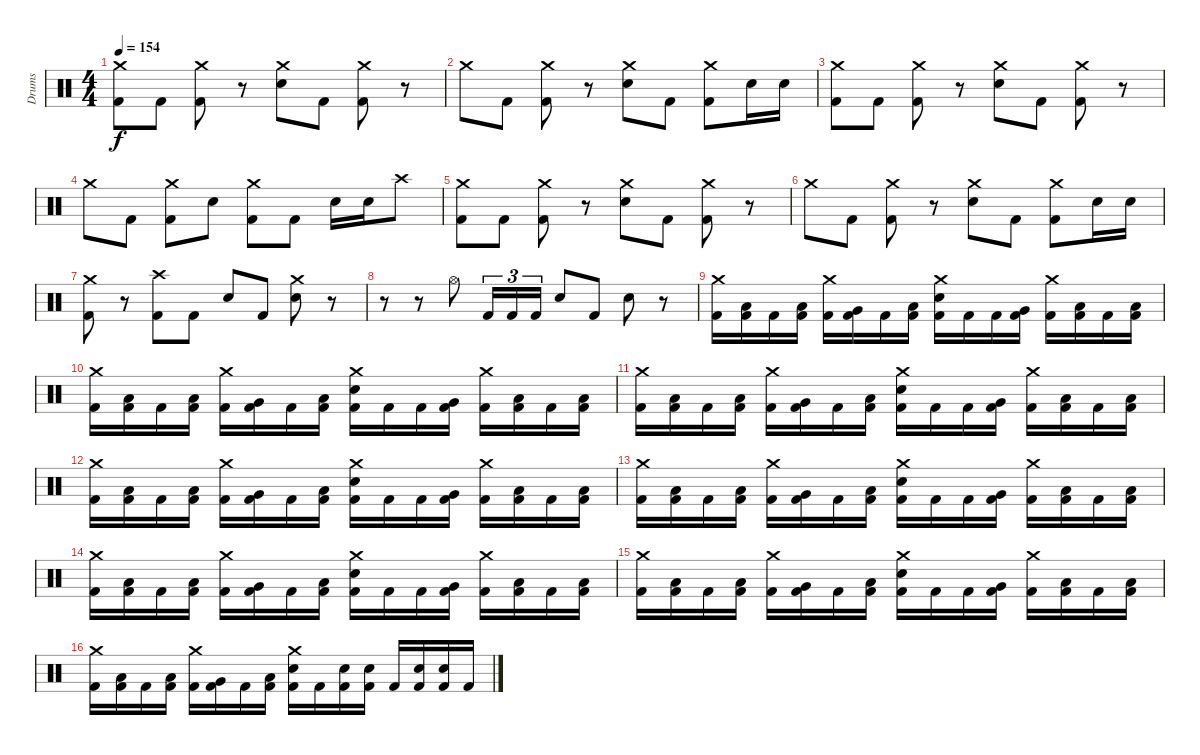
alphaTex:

\track ("Drums" "Drums") {instrument percussion}
\staff {score}
\articulation defaults
\ts (4 4)
\tempo 154
\clef neutral
\ks c
("Crash medium (hit)" "Kick (hit) 2").8{dy f} "Kick (hit) 2".8 ("Crash medium (hit)" "Kick (hit) 2").8 r.8 ("Crash medium (hit)" "Electric Snare (hit)").8 "Kick (hit) 2".8 ("Crash medium (hit)" "Kick (hit) 2").8 r.8 |
"Crash medium (hit)".8 "Kick (hit) 2".8 ("Crash medium (hit)" "Kick (hit) 2").8 r.8 ("Crash medium (hit)" "Electric Snare (hit)").8 "Kick (hit) 2".8 ("Crash medium (hit)" "Kick (hit) 2").8 "Electric Snare (hit)".16 "Electric Snare (hit)".16 |
("Crash medium (hit)" "Kick (hit) 2").8 "Kick (hit) 2".8 ("Crash medium (hit)" "Kick (hit) 2").8 r.8 ("Crash medium (hit)" "Electric Snare (hit)").8 "Kick (hit) 2".8 ("Crash medium (hit)" "Kick (hit) 2").8 r.8 |
"Crash medium (hit)".8 "Kick (hit) 2".8 ("Crash medium (hit)" "Kick (hit) 2").8 "Electric Snare (hit)".8 ("Crash medium (hit)" "Kick (hit) 2").8 "Kick (hit) 2".8 "Electric Snare (hit)".16 "Electric Snare (hit)".16 "Crash high (hit)".8 |
("Crash medium (hit)" "Kick (hit) 2").8 "Kick (hit) 2".8 ("Crash medium (hit)" "Kick (hit) 2").8 r.8 ("Crash medium (hit)" "Electric Snare (hit)").8 "Kick (hit) 2".8 ("Crash medium (hit)" "Kick (hit) 2").8 r.8 |
"Crash medium (hit)".8 "Kick (hit) 2".8 ("Crash medium (hit)" "Kick (hit) 2").8 r.8 ("Crash medium (hit)" "Electric Snare (hit)").8 "Kick (hit) 2".8 ("Crash medium (hit)" "Kick (hit) 2").8 "Electric Snare (hit)".16 "Electric Snare (hit)".16 |
("Crash medium (hit)" "Kick (hit) 2").8 r.8 ("Crash high (hit)" "Kick (hit) 2").8 "Kick (hit) 2".8 "Electric Snare (hit)".8 "Kick (hit) 2".8 ("Crash medium (hit)" "Electric Snare (hit)").8 r.8 |
r.8 r.8 "Hi-Hat (open)".8 "Kick (hit) 2".16{tu (3 2)} "Kick (hit) 2".16{tu (3 2)} "Kick (hit) 2".16{tu (3 2)} "Electric Snare (hit)".8 "Kick (hit) 2".8 "Electric Snare (hit)".8 r.8 |
("Crash medium (hit)" "Kick (hit) 2").16 ("Low Tom (hit)" "Kick (hit) 2").16 "Kick (hit) 2".16 ("Low Tom (hit)" "Kick (hit) 2").16 ("Crash medium (hit)" "Kick (hit) 2").16 ("Very Low Tom (hit)" "Kick (hit) 2").16 "Kick (hit) 2".16 ("Low Tom (hit)" "Kick (hit) 2").16 ("Crash medium (hit)" "Electric Snare (hit)" "Kick (hit) 2").16 "Kick (hit) 2".16 "Kick (hit) 2".16 ("Very Low Tom (hit)" "Kick (hit) 2").16 ("Crash medium (hit)" "Kick (hit) 2").16 ("Low Floor Tom (hit)" "Kick (hit) 2").16 "Kick (hit) 2".16 ("Low Tom (hit)" "Kick (hit) 2").16 |
("Crash medium (hit)" "Kick (hit) 2").16 ("Low Tom (hit)" "Kick (hit) 2").16 "Kick (hit) 2".16 ("Low Tom (hit)" "Kick (hit) 2").16 ("Crash medium (hit)" "Kick (hit) 2").16 ("Very Low Tom (hit)" "Kick (hit) 2").16 "Kick (hit) 2".16 ("Low Tom (hit)" "Kick (hit) 2").16 ("Crash medium (hit)" "Electric Snare (hit)" "Kick (hit) 2").16 "Kick (hit) 2".16 "Kick (hit) 2".16 ("Very Low Tom (hit)" "Kick (hit) 2").16 ("Crash medium (hit)" "Kick (hit) 2").16 ("Low Floor Tom (hit)" "Kick (hit) 2").16 "Kick (hit) 2".16 ("Low Tom (hit)" "Kick (hit) 2").16 |
("Crash medium (hit)" "Kick (hit) 2").16 ("Low Tom (hit)" "Kick (hit) 2").16 "Kick (hit) 2".16 ("Low Tom (hit)" "Kick (hit) 2").16 ("Crash medium (hit)" "Kick (hit) 2").16 ("Very Low Tom (hit)" "Kick (hit) 2").16 "Kick (hit) 2".16 ("Low Tom (hit)" "Kick (hit) 2").16 ("Crash medium (hit)" "Electric Snare (hit)" "Kick (hit) 2").16 "Kick (hit) 2".16 "Kick (hit) 2".16 ("Very Low Tom (hit)" "Kick (hit) 2").16 ("Crash medium (hit)" "Kick (hit) 2").16 ("Low Floor Tom (hit)" "Kick (hit) 2").16 "Kick (hit) 2".16 ("Low Tom (hit)" "Kick (hit) 2").16 |
("Crash medium (hit)" "Kick (hit) 2").16 ("Low Tom (hit)" "Kick (hit) 2").16 "Kick (hit) 2".16 ("Low Tom (hit)" "Kick (hit) 2").16 ("Crash medium (hit)" "Kick (hit) 2").16 ("Very Low Tom (hit)" "Kick (hit) 2").16 "Kick (hit) 2".16 ("Low Tom (hit)" "Kick (hit) 2").16 ("Crash medium (hit)" "Electric Snare (hit)" "Kick (hit) 2").16 "Kick (hit) 2".16 "Kick (hit) 2".16 ("Very Low Tom (hit)" "Kick (hit) 2").16 ("Crash medium (hit)" "Kick (hit) 2").16 ("Low Floor Tom (hit)" "Kick (hit) 2").16 "Kick (hit) 2".16 ("Low Tom (hit)" "Kick (hit) 2").16 |
("Crash medium (hit)" "Kick (hit) 2").16 ("Low Tom (hit)" "Kick (hit) 2").16 "Kick (hit) 2".16 ("Low Tom (hit)" "Kick (hit) 2").16 ("Crash medium (hit)" "Kick (hit) 2").16 ("Very Low Tom (hit)" "Kick (hit) 2").16 "Kick (hit) 2".16 ("Low Tom (hit)" "Kick (hit) 2").16 ("Crash medium (hit)" "Electric Snare (hit)" "Kick (hit) 2").16 "Kick (hit) 2".16 "Kick (hit) 2".16 ("Very Low Tom (hit)" "Kick (hit) 2").16 ("Crash medium (hit)" "Kick (hit) 2").16 ("Low Floor Tom (hit)" "Kick (hit) 2").16 "Kick (hit) 2".16 ("Low Tom (hit)" "Kick (hit) 2").16 |
("Crash medium (hit)" "Kick (hit) 2").16 ("Low Tom (hit)" "Kick (hit) 2").16 "Kick (hit) 2".16 ("Low Tom (hit)" "Kick (hit) 2").16 ("Crash medium (hit)" "Kick (hit) 2").16 ("Very Low Tom (hit)" "Kick (hit) 2").16 "Kick (hit) 2".16 ("Low Tom (hit)" "Kick (hit) 2").16 ("Crash medium (hit)" "Electric Snare (hit)" "Kick (hit) 2").16 "Kick (hit) 2".16 "Kick (hit) 2".16 ("Very Low Tom (hit)" "Kick (hit) 2").16 ("Crash medium (hit)" "Kick (hit) 2").16 ("Low Floor Tom (hit)" "Kick (hit) 2").16 "Kick (hit) 2".16 ("Low Tom (hit)" "Kick (hit) 2").16 |
("Crash medium (hit)" "Kick (hit) 2").16 ("Low Tom (hit)" "Kick (hit) 2").16 "Kick (hit) 2".16 ("Low Tom (hit)" "Kick (hit) 2").16 ("Crash medium (hit)" "Kick (hit) 2").16 ("Very Low Tom (hit)" "Kick (hit) 2").16 "Kick (hit) 2".16 ("Low Tom (hit)" "Kick (hit) 2").16 ("Crash medium (hit)" "Electric Snare (hit)" "Kick (hit) 2").16 "Kick (hit) 2".16 "Kick (hit) 2".16 ("Very Low Tom (hit)" "Kick (hit) 2").16 ("Crash medium (hit)" "Kick (hit) 2").16 ("Low Floor Tom (hit)" "Kick (hit) 2").16 "Kick (hit) 2".16 ("Low Tom (hit)" "Kick (hit) 2").16 |
("Crash medium (hit)" "Kick (hit) 2").16 ("Low Tom (hit)" "Kick (hit) 2").16 "Kick (hit) 2".16 ("Low Tom (hit)" "Kick (hit) 2").16 ("Crash medium (hit)" "Kick (hit) 2").16 ("Very Low Tom (hit)" "Kick (hit) 2").16 "Kick (hit) 2".16 ("Low Tom (hit)" "Kick (hit) 2").16 ("Crash medium (hit)" "Electric Snare (hit)" "Kick (hit) 2").16 "Kick (hit) 2".16 ("Electric Snare (hit)" "Kick (hit) 2").16 ("Electric Snare (hit)" "Kick (hit) 2").16 "Kick (hit) 2".16 ("Electric Snare (hit)" "Kick (hit) 2").16 ("Electric Snare (hit)" "Kick (hit) 2").16 "Kick (hit) 2".16
